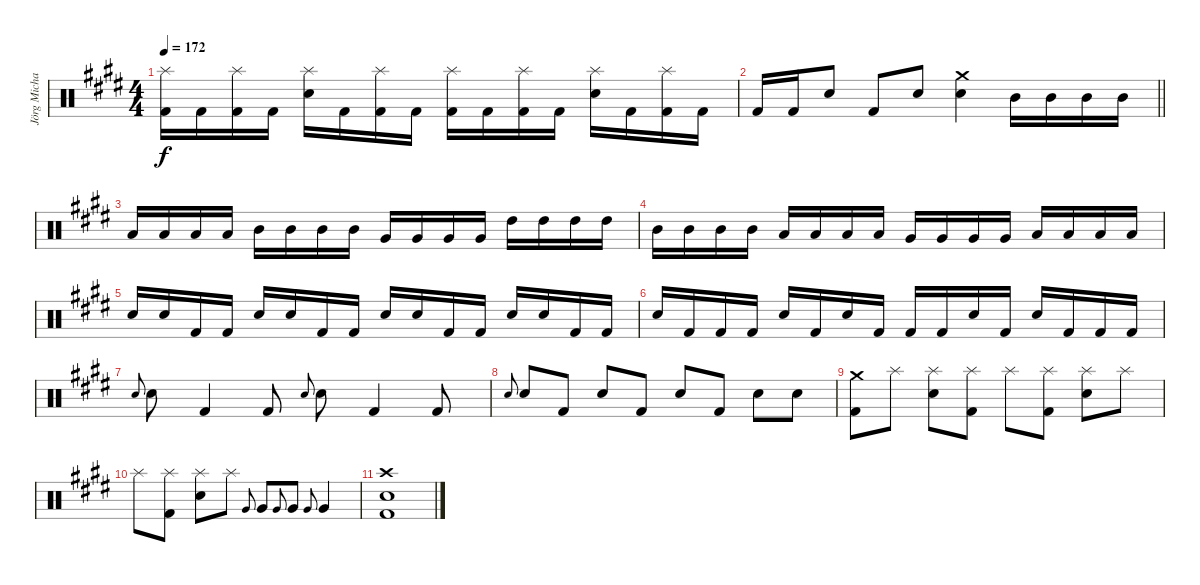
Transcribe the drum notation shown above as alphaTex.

\track ("Jörg Michael" "Jörg Micha") {instrument percussion}
\staff {score}
\articulation defaults
\ts (4 4)
\tempo 172
\clef neutral
\ks c#minor
("Splash (hit)" "Kick (hit) 2").16{dy f} "Kick (hit) 2".16 ("Splash (hit)" "Kick (hit) 2").16 "Kick (hit) 2".16 ("Splash (hit)" "Snare (hit) 2").16 "Kick (hit) 2".16 ("Splash (hit)" "Kick (hit) 2").16 "Kick (hit) 2".16 ("Splash (hit)" "Kick (hit) 2").16 "Kick (hit) 2".16 ("Splash (hit)" "Kick (hit) 2").16 "Kick (hit) 2".16 ("Splash (hit)" "Snare (hit) 2").16 "Kick (hit) 2".16 ("Splash (hit)" "Kick (hit) 2").16 "Kick (hit) 2".16 |
\barLineRight lightlight "Kick (hit) 2".16 "Kick (hit) 2".16 "Snare (hit) 2".8 "Kick (hit) 2".8 "Snare (hit) 2".8
("Crash medium (hit)" "Snare (hit) 2").4 "Mid Tom (hit)".16 "Mid Tom (hit)".16 "Mid Tom (hit)".16 "Mid Tom (hit)".16 |
"Low Tom (hit)".16 "Low Tom (hit)".16 "Low Tom (hit)".16 "Low Tom (hit)".16 "Mid Tom (hit)".16 "Mid Tom (hit)".16 "Mid Tom (hit)".16 "Mid Tom (hit)".16 "Very Low Tom (hit)".16 "Very Low Tom (hit)".16 "Very Low Tom (hit)".16 "Very Low Tom (hit)".16 "High Tom (hit)".16 "High Tom (hit)".16 "High Tom (hit)".16 "High Tom (hit)".16 |
"Mid Tom (hit)".16 "Mid Tom (hit)".16 "Mid Tom (hit)".16 "Mid Tom (hit)".16 "Low Tom (hit)".16 "Low Tom (hit)".16 "Low Tom (hit)".16 "Low Tom (hit)".16 "Very Low Tom (hit)".16 "Very Low Tom (hit)".16 "Very Low Tom (hit)".16 "Very Low Tom (hit)".16 "Low Floor Tom (hit)".16 "Low Floor Tom (hit)".16 "Low Floor Tom (hit)".16 "Low Floor Tom (hit)".16 |
"Snare (hit) 2".16 "Snare (hit) 2".16 "Kick (hit) 2".16 "Kick (hit) 2".16 "Snare (hit) 2".16 "Snare (hit) 2".16 "Kick (hit) 2".16 "Kick (hit) 2".16 "Snare (hit) 2".16 "Snare (hit) 2".16 "Kick (hit) 2".16 "Kick (hit) 2".16 "Snare (hit) 2".16 "Snare (hit) 2".16 "Kick (hit) 2".16 "Kick (hit) 2".16 |
"Snare (hit) 2".16 "Kick (hit) 2".16 "Kick (hit) 2".16 "Kick (hit) 2".16 "Snare (hit) 2".16 "Kick (hit) 2".16 "Snare (hit) 2".16 "Kick (hit) 2".16 "Kick (hit) 2".16 "Kick (hit) 2".16 "Snare (hit) 2".16 "Kick (hit) 2".16 "Snare (hit) 2".16 "Kick (hit) 2".16 "Kick (hit) 2".16 "Kick (hit) 2".16 |
"Snare (hit) 2".8{gr onbeat} "Snare (hit) 2".8 "Kick (hit) 2".4 "Kick (hit) 2".8 "Snare (hit) 2".8{gr onbeat} "Snare (hit) 2".8 "Kick (hit) 2".4 "Kick (hit) 2".8 |
"Snare (hit) 2".8{gr onbeat} "Snare (hit) 2".8 "Kick (hit) 2".8 "Snare (hit) 2".8 "Kick (hit) 2".8 "Snare (hit) 2".8 "Kick (hit) 2".8 "Snare (hit) 2".8 "Snare (hit) 2".8 |
("Crash medium (hit)" "Kick (hit) 2").8 "Splash (hit)".8 ("Splash (hit)" "Snare (hit) 2").8 ("Splash (hit)" "Kick (hit) 2").8 "Splash (hit)".8 ("Splash (hit)" "Kick (hit) 2").8 ("Splash (hit)" "Snare (hit) 2").8 "Splash (hit)".8 |
"Splash (hit)".8 ("Splash (hit)" "Kick (hit) 2").8 ("Splash (hit)" "Snare (hit) 2").8 "Splash (hit)".8 "Very Low Tom (hit)".8{gr onbeat} "Very Low Tom (hit)".8 "Very Low Tom (hit)".8{gr onbeat} "Very Low Tom (hit)".8 "Very Low Tom (hit)".8{gr onbeat} "Very Low Tom (hit)".4 |
("Crash high (hit)" "Snare (hit) 2" "Kick (hit) 2").1
